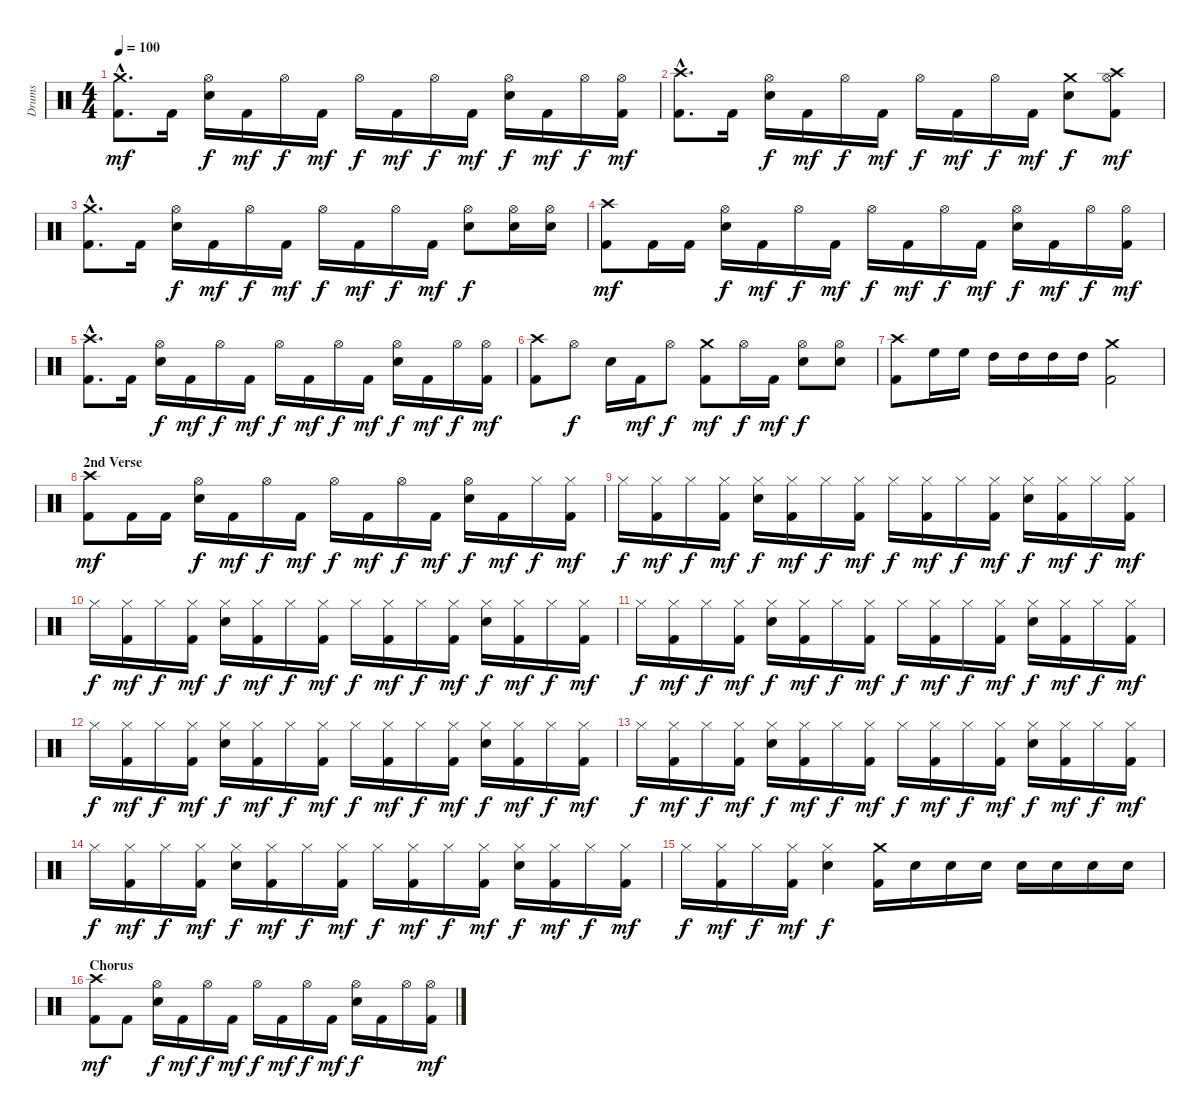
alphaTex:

\track ("Drums" "Drums") {instrument percussion}
\staff {score}
\articulation defaults
\ts (4 4)
\tempo 100
\clef neutral
\ks c
("Kick (hit) 2"{hac} "Crash medium (hit)"{hac}).8{d dy mf} "Kick (hit) 2".16 ("Snare (hit) 2" "Hi-Hat (open)").16{dy f} "Kick (hit) 2".16{dy mf} "Hi-Hat (open)".16{dy f} "Kick (hit) 2".16{dy mf} "Hi-Hat (open)".16{dy f} "Kick (hit) 2".16{dy mf} "Hi-Hat (open)".16{dy f} "Kick (hit) 2".16{dy mf} ("Snare (hit) 2" "Hi-Hat (open)").16{dy f} "Kick (hit) 2".16{dy mf} "Hi-Hat (open)".16{dy f} ("Kick (hit) 2" "Hi-Hat (open)").16{dy mf} |
("Kick (hit) 2"{hac} "Crash high (hit)"{hac}).8{d} "Kick (hit) 2".16 ("Snare (hit) 2" "Hi-Hat (open)").16{dy f} "Kick (hit) 2".16{dy mf} "Hi-Hat (open)".16{dy f} "Kick (hit) 2".16{dy mf} "Hi-Hat (open)".16{dy f} "Kick (hit) 2".16{dy mf} "Hi-Hat (open)".16{dy f} "Kick (hit) 2".16{dy mf} ("Snare (hit) 2" "Crash medium (hit)").8{dy f} ("Kick (hit) 2" "Hi-Hat (open)" "Crash high (hit)").8{dy mf} |
("Kick (hit) 2"{hac} "Crash medium (hit)"{hac}).8{d} "Kick (hit) 2".16 ("Snare (hit) 2" "Hi-Hat (open)").16{dy f} "Kick (hit) 2".16{dy mf} "Hi-Hat (open)".16{dy f} "Kick (hit) 2".16{dy mf} "Hi-Hat (open)".16{dy f} "Kick (hit) 2".16{dy mf} "Hi-Hat (open)".16{dy f} "Kick (hit) 2".16{dy mf} ("Snare (hit) 2" "Hi-Hat (open)").8{dy f} ("Snare (hit) 2" "Hi-Hat (open)").16 ("Snare (hit) 2" "Hi-Hat (open)").16 |
("Kick (hit) 2" "Crash high (hit)").8{dy mf} "Kick (hit) 2".16 "Kick (hit) 2".16 ("Snare (hit) 2" "Hi-Hat (open)").16{dy f} "Kick (hit) 2".16{dy mf} "Hi-Hat (open)".16{dy f} "Kick (hit) 2".16{dy mf} "Hi-Hat (open)".16{dy f} "Kick (hit) 2".16{dy mf} "Hi-Hat (open)".16{dy f} "Kick (hit) 2".16{dy mf} ("Snare (hit) 2" "Hi-Hat (open)").16{dy f} "Kick (hit) 2".16{dy mf} "Hi-Hat (open)".16{dy f} ("Kick (hit) 2" "Hi-Hat (open)").16{dy mf} |
("Kick (hit) 2"{hac} "Crash high (hit)"{hac}).8{d} "Kick (hit) 2".16 ("Snare (hit) 2" "Hi-Hat (open)").16{dy f} "Kick (hit) 2".16{dy mf} "Hi-Hat (open)".16{dy f} "Kick (hit) 2".16{dy mf} "Hi-Hat (open)".16{dy f} "Kick (hit) 2".16{dy mf} "Hi-Hat (open)".16{dy f} "Kick (hit) 2".16{dy mf} ("Snare (hit) 2" "Hi-Hat (open)").16{dy f} "Kick (hit) 2".16{dy mf} "Hi-Hat (open)".16{dy f} ("Kick (hit) 2" "Hi-Hat (open)").16{dy mf} |
("Kick (hit) 2" "Crash high (hit)").8 "Hi-Hat (open)".8{dy f} "Snare (hit) 2".16 "Kick (hit) 2".16{dy mf} "Hi-Hat (open)".8{dy f} ("Kick (hit) 2" "Crash medium (hit)").8{dy mf} "Hi-Hat (open)".16{dy f} "Kick (hit) 2".16{dy mf} ("Snare (hit) 2" "Hi-Hat (open)").8{dy f} ("Snare (hit) 2" "Hi-Hat (open)").8 |
("Kick (hit) 2" "Crash high (hit)").8 "High Floor Tom (hit)".16 "High Floor Tom (hit)".16 "High Tom (hit)".16 "High Tom (hit)".16 "High Tom (hit)".16 "High Tom (hit)".16 ("Kick (hit) 2" "Crash medium (hit)").2 |
\section ("" "2nd Verse")
("Kick (hit) 2" "Crash high (hit)").8{dy mf} "Kick (hit) 2".16 "Kick (hit) 2".16 ("Snare (hit) 2" "Hi-Hat (open)").16{dy f} "Kick (hit) 2".16{dy mf} "Hi-Hat (open)".16{dy f} "Kick (hit) 2".16{dy mf} "Hi-Hat (open)".16{dy f} "Kick (hit) 2".16{dy mf} "Hi-Hat (open)".16{dy f} "Kick (hit) 2".16{dy mf} ("Snare (hit) 2" "Hi-Hat (open)").16{dy f} "Kick (hit) 2".16{dy mf} "Hi-Hat (closed)".16{dy f} ("Kick (hit) 2" "Hi-Hat (closed)").16{dy mf} |
"Hi-Hat (closed)".16{dy f} ("Kick (hit) 2" "Hi-Hat (closed)").16{dy mf} "Hi-Hat (closed)".16{dy f} ("Kick (hit) 2" "Hi-Hat (closed)").16{dy mf} ("Snare (hit) 2" "Hi-Hat (closed)").16{dy f} ("Kick (hit) 2" "Hi-Hat (closed)").16{dy mf} "Hi-Hat (closed)".16{dy f} ("Kick (hit) 2" "Hi-Hat (closed)").16{dy mf} "Hi-Hat (closed)".16{dy f} ("Kick (hit) 2" "Hi-Hat (closed)").16{dy mf} "Hi-Hat (closed)".16{dy f} ("Kick (hit) 2" "Hi-Hat (closed)").16{dy mf} ("Snare (hit) 2" "Hi-Hat (closed)").16{dy f} ("Kick (hit) 2" "Hi-Hat (closed)").16{dy mf} "Hi-Hat (closed)".16{dy f} ("Kick (hit) 2" "Hi-Hat (closed)").16{dy mf} |
"Hi-Hat (closed)".16{dy f} ("Kick (hit) 2" "Hi-Hat (closed)").16{dy mf} "Hi-Hat (closed)".16{dy f} ("Kick (hit) 2" "Hi-Hat (closed)").16{dy mf} ("Snare (hit) 2" "Hi-Hat (closed)").16{dy f} ("Kick (hit) 2" "Hi-Hat (closed)").16{dy mf} "Hi-Hat (closed)".16{dy f} ("Kick (hit) 2" "Hi-Hat (closed)").16{dy mf} "Hi-Hat (closed)".16{dy f} ("Kick (hit) 2" "Hi-Hat (closed)").16{dy mf} "Hi-Hat (closed)".16{dy f} ("Kick (hit) 2" "Hi-Hat (closed)").16{dy mf} ("Snare (hit) 2" "Hi-Hat (closed)").16{dy f} ("Kick (hit) 2" "Hi-Hat (closed)").16{dy mf} "Hi-Hat (closed)".16{dy f} ("Kick (hit) 2" "Hi-Hat (closed)").16{dy mf} |
"Hi-Hat (closed)".16{dy f} ("Kick (hit) 2" "Hi-Hat (closed)").16{dy mf} "Hi-Hat (closed)".16{dy f} ("Kick (hit) 2" "Hi-Hat (closed)").16{dy mf} ("Snare (hit) 2" "Hi-Hat (closed)").16{dy f} ("Kick (hit) 2" "Hi-Hat (closed)").16{dy mf} "Hi-Hat (closed)".16{dy f} ("Kick (hit) 2" "Hi-Hat (closed)").16{dy mf} "Hi-Hat (closed)".16{dy f} ("Kick (hit) 2" "Hi-Hat (closed)").16{dy mf} "Hi-Hat (closed)".16{dy f} ("Kick (hit) 2" "Hi-Hat (closed)").16{dy mf} ("Snare (hit) 2" "Hi-Hat (closed)").16{dy f} ("Kick (hit) 2" "Hi-Hat (closed)").16{dy mf} "Hi-Hat (closed)".16{dy f} ("Kick (hit) 2" "Hi-Hat (closed)").16{dy mf} |
"Hi-Hat (closed)".16{dy f} ("Kick (hit) 2" "Hi-Hat (closed)").16{dy mf} "Hi-Hat (closed)".16{dy f} ("Kick (hit) 2" "Hi-Hat (closed)").16{dy mf} ("Snare (hit) 2" "Hi-Hat (closed)").16{dy f} ("Kick (hit) 2" "Hi-Hat (closed)").16{dy mf} "Hi-Hat (closed)".16{dy f} ("Kick (hit) 2" "Hi-Hat (closed)").16{dy mf} "Hi-Hat (closed)".16{dy f} ("Kick (hit) 2" "Hi-Hat (closed)").16{dy mf} "Hi-Hat (closed)".16{dy f} ("Kick (hit) 2" "Hi-Hat (closed)").16{dy mf} ("Snare (hit) 2" "Hi-Hat (closed)").16{dy f} ("Kick (hit) 2" "Hi-Hat (closed)").16{dy mf} "Hi-Hat (closed)".16{dy f} ("Kick (hit) 2" "Hi-Hat (closed)").16{dy mf} |
"Hi-Hat (closed)".16{dy f} ("Kick (hit) 2" "Hi-Hat (closed)").16{dy mf} "Hi-Hat (closed)".16{dy f} ("Kick (hit) 2" "Hi-Hat (closed)").16{dy mf} ("Snare (hit) 2" "Hi-Hat (closed)").16{dy f} ("Kick (hit) 2" "Hi-Hat (closed)").16{dy mf} "Hi-Hat (closed)".16{dy f} ("Kick (hit) 2" "Hi-Hat (closed)").16{dy mf} "Hi-Hat (closed)".16{dy f} ("Kick (hit) 2" "Hi-Hat (closed)").16{dy mf} "Hi-Hat (closed)".16{dy f} ("Kick (hit) 2" "Hi-Hat (closed)").16{dy mf} ("Snare (hit) 2" "Hi-Hat (closed)").16{dy f} ("Kick (hit) 2" "Hi-Hat (closed)").16{dy mf} "Hi-Hat (closed)".16{dy f} ("Kick (hit) 2" "Hi-Hat (closed)").16{dy mf} |
"Hi-Hat (closed)".16{dy f} ("Kick (hit) 2" "Hi-Hat (closed)").16{dy mf} "Hi-Hat (closed)".16{dy f} ("Kick (hit) 2" "Hi-Hat (closed)").16{dy mf} ("Snare (hit) 2" "Hi-Hat (closed)").16{dy f} ("Kick (hit) 2" "Hi-Hat (closed)").16{dy mf} "Hi-Hat (closed)".16{dy f} ("Kick (hit) 2" "Hi-Hat (closed)").16{dy mf} "Hi-Hat (closed)".16{dy f} ("Kick (hit) 2" "Hi-Hat (closed)").16{dy mf} "Hi-Hat (closed)".16{dy f} ("Kick (hit) 2" "Hi-Hat (closed)").16{dy mf} ("Snare (hit) 2" "Hi-Hat (closed)").16{dy f} ("Kick (hit) 2" "Hi-Hat (closed)").16{dy mf} "Hi-Hat (closed)".16{dy f} ("Kick (hit) 2" "Hi-Hat (closed)").16{dy mf} |
"Hi-Hat (closed)".16{dy f} ("Kick (hit) 2" "Hi-Hat (closed)").16{dy mf} "Hi-Hat (closed)".16{dy f} ("Kick (hit) 2" "Hi-Hat (closed)").16{dy mf} ("Snare (hit) 2" "Hi-Hat (closed)").4{dy f} ("Kick (hit) 2" "Crash medium (hit)").16 "Snare (hit) 2".16 "Snare (hit) 2".16 "Snare (hit) 2".16 "Snare (hit) 2".16 "Snare (hit) 2".16 "Snare (hit) 2".16 "Snare (hit) 2".16 |
\section ("" "Chorus")
("Kick (hit) 2" "Crash high (hit)").8{dy mf} "Kick (hit) 2".8 ("Snare (hit) 2" "Hi-Hat (open)").16{dy f} "Kick (hit) 2".16{dy mf} "Hi-Hat (open)".16{dy f} "Kick (hit) 2".16{dy mf} "Hi-Hat (open)".16{dy f} "Kick (hit) 2".16{dy mf} "Hi-Hat (open)".16{dy f} "Kick (hit) 2".16{dy mf} ("Snare (hit) 2" "Hi-Hat (open)").16{dy f} "Kick (hit) 2".16 "Hi-Hat (open)".16 ("Kick (hit) 2" "Hi-Hat (open)").16{dy mf}
